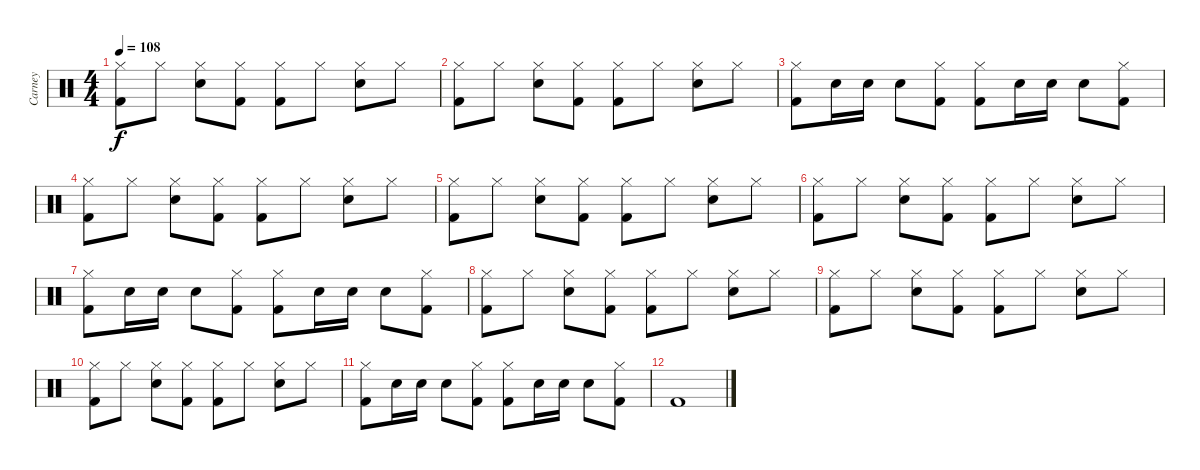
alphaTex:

\track ("Carney" "Carney") {instrument percussion}
\staff {score}
\articulation defaults
\ts (4 4)
\tempo 108
\clef neutral
\ks c
("Hi-Hat (closed)" "Kick (hit) 2").8{dy f} "Hi-Hat (closed)".8 ("Hi-Hat (closed)" "Snare (hit) 2").8 ("Hi-Hat (closed)" "Kick (hit) 2").8 ("Hi-Hat (closed)" "Kick (hit) 2").8 "Hi-Hat (closed)".8 ("Hi-Hat (closed)" "Snare (hit) 2").8 "Hi-Hat (closed)".8 |
("Hi-Hat (closed)" "Kick (hit) 2").8 "Hi-Hat (closed)".8 ("Hi-Hat (closed)" "Snare (hit) 2").8 ("Hi-Hat (closed)" "Kick (hit) 2").8 ("Hi-Hat (closed)" "Kick (hit) 2").8 "Hi-Hat (closed)".8 ("Hi-Hat (closed)" "Snare (hit) 2").8 "Hi-Hat (closed)".8 |
("Hi-Hat (closed)" "Kick (hit) 2").8 "Snare (hit) 2".16 "Snare (hit) 2".16 "Snare (hit) 2".8 ("Hi-Hat (closed)" "Kick (hit) 2").8 ("Hi-Hat (closed)" "Kick (hit) 2").8 "Snare (hit) 2".16 "Snare (hit) 2".16 "Snare (hit) 2".8 ("Hi-Hat (closed)" "Kick (hit) 2").8 |
("Hi-Hat (closed)" "Kick (hit) 2").8 "Hi-Hat (closed)".8 ("Hi-Hat (closed)" "Snare (hit) 2").8 ("Hi-Hat (closed)" "Kick (hit) 2").8 ("Hi-Hat (closed)" "Kick (hit) 2").8 "Hi-Hat (closed)".8 ("Hi-Hat (closed)" "Snare (hit) 2").8 "Hi-Hat (closed)".8 |
("Hi-Hat (closed)" "Kick (hit) 2").8 "Hi-Hat (closed)".8 ("Hi-Hat (closed)" "Snare (hit) 2").8 ("Hi-Hat (closed)" "Kick (hit) 2").8 ("Hi-Hat (closed)" "Kick (hit) 2").8 "Hi-Hat (closed)".8 ("Hi-Hat (closed)" "Snare (hit) 2").8 "Hi-Hat (closed)".8 |
("Hi-Hat (closed)" "Kick (hit) 2").8 "Hi-Hat (closed)".8 ("Hi-Hat (closed)" "Snare (hit) 2").8 ("Hi-Hat (closed)" "Kick (hit) 2").8 ("Hi-Hat (closed)" "Kick (hit) 2").8 "Hi-Hat (closed)".8 ("Hi-Hat (closed)" "Snare (hit) 2").8 "Hi-Hat (closed)".8 |
("Hi-Hat (closed)" "Kick (hit) 2").8 "Snare (hit) 2".16 "Snare (hit) 2".16 "Snare (hit) 2".8 ("Hi-Hat (closed)" "Kick (hit) 2").8 ("Hi-Hat (closed)" "Kick (hit) 2").8 "Snare (hit) 2".16 "Snare (hit) 2".16 "Snare (hit) 2".8 ("Hi-Hat (closed)" "Kick (hit) 2").8 |
("Hi-Hat (closed)" "Kick (hit) 2").8 "Hi-Hat (closed)".8 ("Hi-Hat (closed)" "Snare (hit) 2").8 ("Hi-Hat (closed)" "Kick (hit) 2").8 ("Hi-Hat (closed)" "Kick (hit) 2").8 "Hi-Hat (closed)".8 ("Hi-Hat (closed)" "Snare (hit) 2").8 "Hi-Hat (closed)".8 |
("Hi-Hat (closed)" "Kick (hit) 2").8 "Hi-Hat (closed)".8 ("Hi-Hat (closed)" "Snare (hit) 2").8 ("Hi-Hat (closed)" "Kick (hit) 2").8 ("Hi-Hat (closed)" "Kick (hit) 2").8 "Hi-Hat (closed)".8 ("Hi-Hat (closed)" "Snare (hit) 2").8 "Hi-Hat (closed)".8 |
("Hi-Hat (closed)" "Kick (hit) 2").8 "Hi-Hat (closed)".8 ("Hi-Hat (closed)" "Snare (hit) 2").8 ("Hi-Hat (closed)" "Kick (hit) 2").8 ("Hi-Hat (closed)" "Kick (hit) 2").8 "Hi-Hat (closed)".8 ("Hi-Hat (closed)" "Snare (hit) 2").8 "Hi-Hat (closed)".8 |
("Hi-Hat (closed)" "Kick (hit) 2").8 "Snare (hit) 2".16 "Snare (hit) 2".16 "Snare (hit) 2".8 ("Hi-Hat (closed)" "Kick (hit) 2").8 ("Hi-Hat (closed)" "Kick (hit) 2").8 "Snare (hit) 2".16 "Snare (hit) 2".16 "Snare (hit) 2".8 ("Hi-Hat (closed)" "Kick (hit) 2").8 |
"Kick (hit) 2".1
